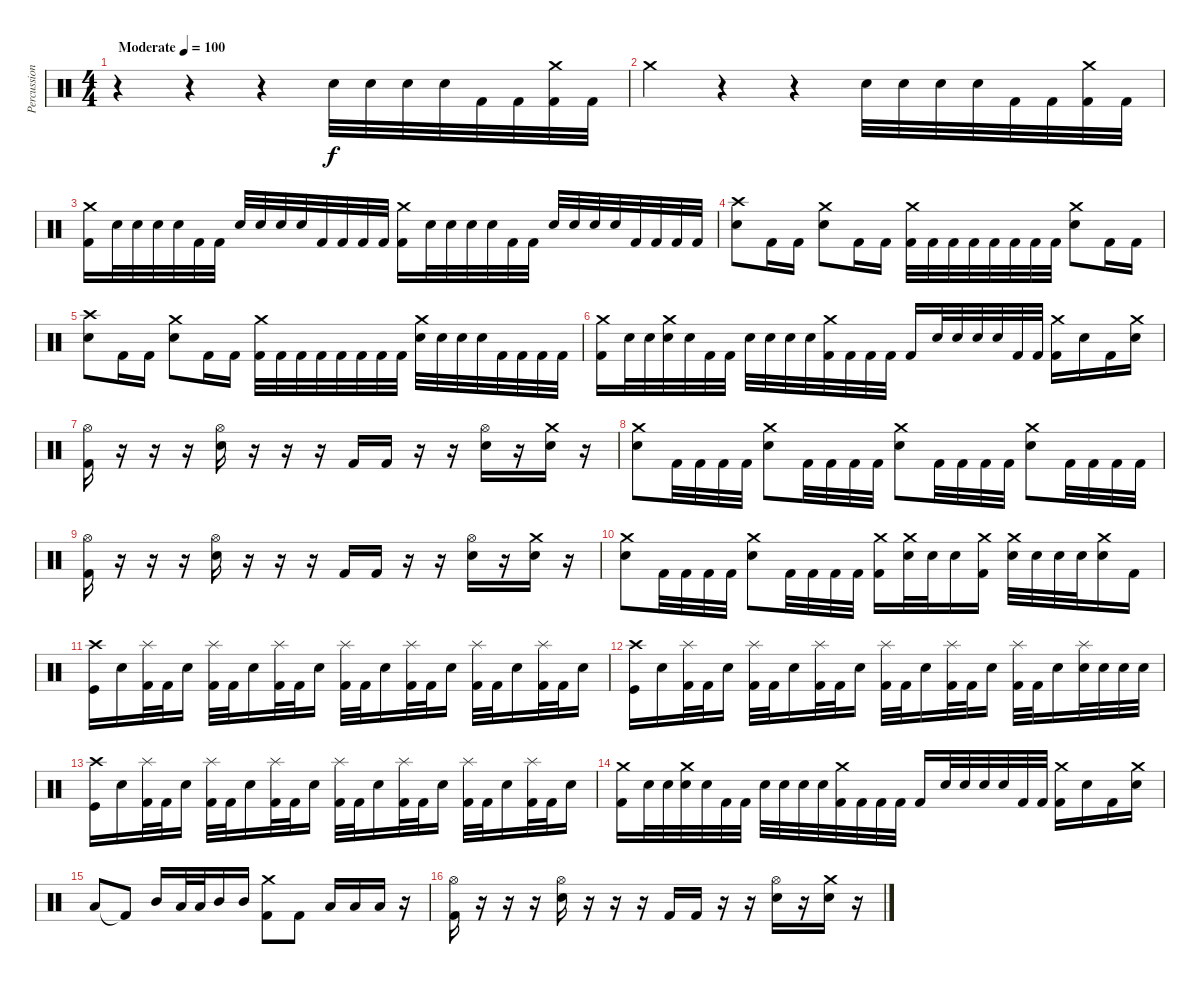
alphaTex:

\track ("Percussion" "Percussion") {instrument percussion}
\staff {score}
\articulation defaults
\ts (4 4)
\tempo (100 "Moderate")
\clef neutral
\ks c
r.4{dy f} r.4 r.4 "Electric Snare (hit)".32 "Electric Snare (hit)".32 "Electric Snare (hit)".32 "Electric Snare (hit)".32 "Kick (hit) 2".32 "Kick (hit) 2".32 ("Crash medium (hit)" "Kick (hit) 2").32 "Kick (hit) 2".32 |
"Crash medium (hit)".4 r.4 r.4 "Electric Snare (hit)".32 "Electric Snare (hit)".32 "Electric Snare (hit)".32 "Electric Snare (hit)".32 "Kick (hit) 2".32 "Kick (hit) 2".32 ("Crash medium (hit)" "Kick (hit) 2").32 "Kick (hit) 2".32 |
("Crash medium (hit)" "Kick (hit) 2").16 "Electric Snare (hit)".32 "Electric Snare (hit)".32 "Electric Snare (hit)".32 "Electric Snare (hit)".32 "Kick (hit) 2".32 "Kick (hit) 2".32 "Electric Snare (hit)".32 "Electric Snare (hit)".32 "Electric Snare (hit)".32 "Electric Snare (hit)".32 "Kick (hit) 2".32 "Kick (hit) 2".32 "Kick (hit) 2".32 "Kick (hit) 2".32 ("Crash medium (hit)" "Kick (hit) 2").16 "Electric Snare (hit)".32 "Electric Snare (hit)".32 "Electric Snare (hit)".32 "Electric Snare (hit)".32 "Kick (hit) 2".32 "Kick (hit) 2".32 "Electric Snare (hit)".32 "Electric Snare (hit)".32 "Electric Snare (hit)".32 "Electric Snare (hit)".32 "Kick (hit) 2".32 "Kick (hit) 2".32 "Kick (hit) 2".32 "Kick (hit) 2".32 |
("Crash high (hit)" "Electric Snare (hit)").8 "Kick (hit) 2".16 "Kick (hit) 2".16 ("Crash medium (hit)" "Snare (hit) 2").8 "Kick (hit) 2".16 "Kick (hit) 2".16 ("Crash medium (hit)" "Kick (hit) 2").32 "Kick (hit) 2".32 "Kick (hit) 2".32 "Kick (hit) 2".32 "Kick (hit) 2".32 "Kick (hit) 2".32 "Kick (hit) 2".32 "Kick (hit) 2".32 ("Crash medium (hit)" "Snare (hit) 2").8 "Kick (hit) 2".16 "Kick (hit) 2".16 |
("Crash high (hit)" "Electric Snare (hit)").8 "Kick (hit) 2".16 "Kick (hit) 2".16 ("Crash medium (hit)" "Snare (hit) 2").8 "Kick (hit) 2".16 "Kick (hit) 2".16 ("Crash medium (hit)" "Kick (hit) 2").32 "Kick (hit) 2".32 "Kick (hit) 2".32 "Kick (hit) 2".32 "Kick (hit) 2".32 "Kick (hit) 2".32 "Kick (hit) 2".32 "Kick (hit) 2".32 ("Crash medium (hit)" "Electric Snare (hit)").32 "Electric Snare (hit)".32 "Electric Snare (hit)".32 "Electric Snare (hit)".32 "Kick (hit) 2".32 "Kick (hit) 2".32 "Kick (hit) 2".32 "Kick (hit) 2".32 |
("Crash medium (hit)" "Kick (hit) 2").16 "Electric Snare (hit)".32 "Electric Snare (hit)".32 ("Crash medium (hit)" "Electric Snare (hit)").32 "Electric Snare (hit)".32 "Kick (hit) 2".32 "Kick (hit) 2".32 "Electric Snare (hit)".32 "Electric Snare (hit)".32 "Electric Snare (hit)".32 "Electric Snare (hit)".32 ("Crash medium (hit)" "Kick (hit) 2").32 "Kick (hit) 2".32 "Kick (hit) 2".32 "Kick (hit) 2".32 "Kick (hit) 2".16 "Electric Snare (hit)".32 "Electric Snare (hit)".32 "Electric Snare (hit)".32 "Electric Snare (hit)".32 "Kick (hit) 2".32 "Kick (hit) 2".32 ("Crash medium (hit)" "Kick (hit) 2").16 "Electric Snare (hit)".16 "Kick (hit) 2".16 ("Crash medium (hit)" "Electric Snare (hit)").16 |
("Hi-Hat (open)" "Kick (hit) 2").16 r.16 r.16 r.16 ("Snare (hit) 2" "Hi-Hat (open)").16 r.16 r.16 r.16 "Kick (hit) 2".16 "Kick (hit) 2".16 r.16 r.16 ("Hi-Hat (open)" "Snare (hit) 2").16 r.16 ("Crash medium (hit)" "Snare (hit) 2").16 r.16 |
("Crash medium (hit)" "Electric Snare (hit)").8 "Kick (hit) 2".32 "Kick (hit) 2".32 "Kick (hit) 2".32 "Kick (hit) 2".32 ("Crash medium (hit)" "Snare (hit) 2").8 "Kick (hit) 2".32 "Kick (hit) 2".32 "Kick (hit) 2".32 "Kick (hit) 2".32 ("Crash medium (hit)" "Electric Snare (hit)").8 "Kick (hit) 2".32 "Kick (hit) 2".32 "Kick (hit) 2".32 "Kick (hit) 2".32 ("Crash medium (hit)" "Snare (hit) 2").8 "Kick (hit) 2".32 "Kick (hit) 2".32 "Kick (hit) 2".32 "Kick (hit) 2".32 |
("Hi-Hat (open)" "Kick (hit) 2").16 r.16 r.16 r.16 ("Snare (hit) 2" "Hi-Hat (open)").16 r.16 r.16 r.16 "Kick (hit) 2".16 "Kick (hit) 2".16 r.16 r.16 ("Hi-Hat (open)" "Snare (hit) 2").16 r.16 ("Crash medium (hit)" "Snare (hit) 2").16 r.16 |
("Crash medium (hit)" "Electric Snare (hit)").8 "Kick (hit) 2".32 "Kick (hit) 2".32 "Kick (hit) 2".32 "Kick (hit) 2".32 ("Crash medium (hit)" "Snare (hit) 2").8 "Kick (hit) 2".32 "Kick (hit) 2".32 "Kick (hit) 2".32 "Kick (hit) 2".32 ("Crash medium (hit)" "Kick (hit) 2").16 ("Crash medium (hit)" "Electric Snare (hit)").32 "Electric Snare (hit)".32 "Electric Snare (hit)".16 ("Crash medium (hit)" "Kick (hit) 2").16 ("Crash medium (hit)" "Electric Snare (hit)").32 "Electric Snare (hit)".32 "Electric Snare (hit)".32 "Electric Snare (hit)".32 ("Crash medium (hit)" "Electric Snare (hit)").16 "Kick (hit) 2".16 |
("Crash high (hit)" "Kick (hit)").16 "Electric Snare (hit)".16 ("Splash (hit)" "Kick (hit) 2").32 "Kick (hit) 2".32 "Electric Snare (hit)".16 ("Splash (hit)" "Kick (hit) 2").32 "Kick (hit) 2".32 "Electric Snare (hit)".16 ("Splash (hit)" "Kick (hit) 2").32 "Kick (hit) 2".32 "Electric Snare (hit)".16 ("Splash (hit)" "Kick (hit) 2").32 "Kick (hit) 2".32 "Electric Snare (hit)".16 ("Splash (hit)" "Kick (hit) 2").32 "Kick (hit) 2".32 "Electric Snare (hit)".16 ("Splash (hit)" "Kick (hit) 2").32 "Kick (hit) 2".32 "Electric Snare (hit)".16 ("Splash (hit)" "Kick (hit) 2").32 "Kick (hit) 2".32 "Electric Snare (hit)".16 |
("Crash high (hit)" "Kick (hit)").16 "Electric Snare (hit)".16 ("Splash (hit)" "Kick (hit) 2").32 "Kick (hit) 2".32 "Electric Snare (hit)".16 ("Splash (hit)" "Kick (hit) 2").32 "Kick (hit) 2".32 "Electric Snare (hit)".16 ("Splash (hit)" "Kick (hit) 2").32 "Kick (hit) 2".32 "Electric Snare (hit)".16 ("Splash (hit)" "Kick (hit) 2").32 "Kick (hit) 2".32 "Electric Snare (hit)".16 ("Splash (hit)" "Kick (hit) 2").32 "Kick (hit) 2".32 "Electric Snare (hit)".16 ("Splash (hit)" "Kick (hit) 2").32 "Kick (hit) 2".32 "Electric Snare (hit)".16 ("Splash (hit)" "Electric Snare (hit)").32 "Electric Snare (hit)".32 "Electric Snare (hit)".32 "Electric Snare (hit)".32 |
("Crash high (hit)" "Kick (hit)").16 "Electric Snare (hit)".16 ("Splash (hit)" "Kick (hit) 2").32 "Kick (hit) 2".32 "Electric Snare (hit)".16 ("Splash (hit)" "Kick (hit) 2").32 "Kick (hit) 2".32 "Electric Snare (hit)".16 ("Splash (hit)" "Kick (hit) 2").32 "Kick (hit) 2".32 "Electric Snare (hit)".16 ("Splash (hit)" "Kick (hit) 2").32 "Kick (hit) 2".32 "Electric Snare (hit)".16 ("Splash (hit)" "Kick (hit) 2").32 "Kick (hit) 2".32 "Electric Snare (hit)".16 ("Splash (hit)" "Kick (hit) 2").32 "Kick (hit) 2".32 "Electric Snare (hit)".16 ("Splash (hit)" "Kick (hit) 2").32 "Kick (hit) 2".32 "Electric Snare (hit)".16 |
("Crash medium (hit)" "Kick (hit) 2").16 "Electric Snare (hit)".32 "Electric Snare (hit)".32 ("Crash medium (hit)" "Electric Snare (hit)").32 "Electric Snare (hit)".32 "Kick (hit) 2".32 "Kick (hit) 2".32 "Electric Snare (hit)".32 "Electric Snare (hit)".32 "Electric Snare (hit)".32 "Electric Snare (hit)".32 ("Crash medium (hit)" "Kick (hit) 2").32 "Kick (hit) 2".32 "Kick (hit) 2".32 "Kick (hit) 2".32 "Kick (hit) 2".16 "Electric Snare (hit)".32 "Electric Snare (hit)".32 "Electric Snare (hit)".32 "Electric Snare (hit)".32 "Kick (hit) 2".32 "Kick (hit) 2".32 ("Crash medium (hit)" "Kick (hit) 2").16 "Electric Snare (hit)".16 "Kick (hit) 2".16 ("Crash medium (hit)" "Electric Snare (hit)").16 |
"Low Tom (hit)".8 "Kick (hit) 2"{t}.8 "Mid Tom (hit)".16 "Low Tom (hit)".32 "Low Tom (hit)".32 "Mid Tom (hit)".16 "Mid Tom (hit)".16 ("Crash medium (hit)" "Kick (hit) 2").8 "Kick (hit) 2".8 "Low Tom (hit)".16 "Low Tom (hit)".16 "Low Tom (hit)".16 r.16 |
("Hi-Hat (open)" "Kick (hit) 2").16 r.16 r.16 r.16 ("Snare (hit) 2" "Hi-Hat (open)").16 r.16 r.16 r.16 "Kick (hit) 2".16 "Kick (hit) 2".16 r.16 r.16 ("Hi-Hat (open)" "Snare (hit) 2").16 r.16 ("Crash medium (hit)" "Snare (hit) 2").16 r.16
